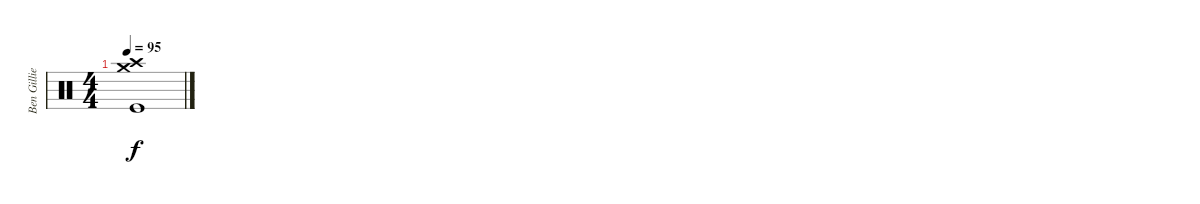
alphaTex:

\track ("Ben Gillies (drums)" "Ben Gillie") {instrument percussion}
\staff {score}
\articulation defaults
\ts (4 4)
\tempo 95
\clef neutral
\ks c
("Crash medium (hit)" "Crash high (hit)" "Kick (hit)").1{dy f}
